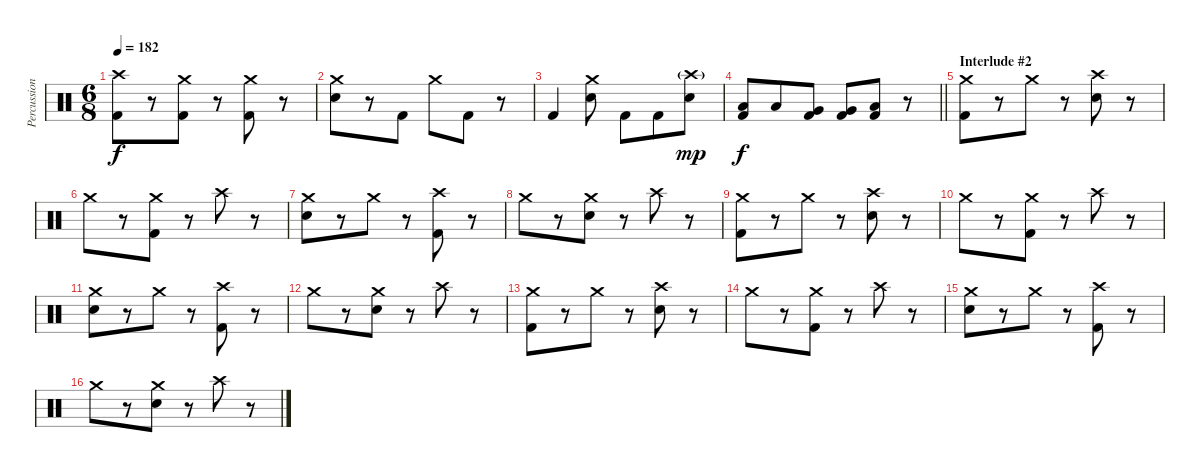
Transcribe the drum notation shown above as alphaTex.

\track ("Percussion" "Percussion") {instrument percussion}
\staff {score}
\articulation defaults
\ts (6 8)
\tempo 182
\clef neutral
\ks c
("Kick (hit) 2" "Crash high (hit)").8{dy f} r.8 ("Kick (hit) 2" "Crash medium (hit)").8 r.8 ("Kick (hit) 2" "Crash medium (hit)").8 r.8 |
("Snare (hit) 2" "Crash medium (hit)").8 r.8 "Kick (hit) 2".8 "Crash medium (hit)".8 "Kick (hit) 2".8 r.8 |
"Kick (hit) 2".4 ("Snare (hit) 2" "Crash medium (hit)").8 "Kick (hit) 2".8 "Kick (hit) 2".8 ("Snare (hit) 2" "Crash high (hit)"{g}).8{dy mp} |
\barLineRight lightlight
("Kick (hit) 2" "Low Tom (hit)").8{dy f} "Low Tom (hit)".8 ("Kick (hit) 2" "Very Low Tom (hit)").8 ("Kick (hit) 2" "Very Low Tom (hit)").8 ("Kick (hit) 2" "Low Floor Tom (hit)").8 r.8 |
\section ("" "Interlude #2")
("Kick (hit) 2" "Crash medium (hit)").8 r.8 "Crash medium (hit)".8 r.8 ("Snare (hit) 2" "Crash high (hit)").8 r.8 |
"Crash medium (hit)".8 r.8 ("Kick (hit) 2" "Crash medium (hit)").8 r.8 "Crash high (hit)".8 r.8 |
("Snare (hit) 2" "Crash medium (hit)").8 r.8 "Crash medium (hit)".8 r.8 ("Kick (hit) 2" "Crash high (hit)").8 r.8 |
"Crash medium (hit)".8 r.8 ("Snare (hit) 2" "Crash medium (hit)").8 r.8 "Crash high (hit)".8 r.8 |
("Kick (hit) 2" "Crash medium (hit)").8 r.8 "Crash medium (hit)".8 r.8 ("Snare (hit) 2" "Crash high (hit)").8 r.8 |
"Crash medium (hit)".8 r.8 ("Kick (hit) 2" "Crash medium (hit)").8 r.8 "Crash high (hit)".8 r.8 |
("Snare (hit) 2" "Crash medium (hit)").8 r.8 "Crash medium (hit)".8 r.8 ("Kick (hit) 2" "Crash high (hit)").8 r.8 |
"Crash medium (hit)".8 r.8 ("Snare (hit) 2" "Crash medium (hit)").8 r.8 "Crash high (hit)".8 r.8 |
("Kick (hit) 2" "Crash medium (hit)").8 r.8 "Crash medium (hit)".8 r.8 ("Snare (hit) 2" "Crash high (hit)").8 r.8 |
"Crash medium (hit)".8 r.8 ("Kick (hit) 2" "Crash medium (hit)").8 r.8 "Crash high (hit)".8 r.8 |
("Snare (hit) 2" "Crash medium (hit)").8 r.8 "Crash medium (hit)".8 r.8 ("Kick (hit) 2" "Crash high (hit)").8 r.8 |
"Crash medium (hit)".8 r.8 ("Snare (hit) 2" "Crash medium (hit)").8 r.8 "Crash high (hit)".8 r.8
